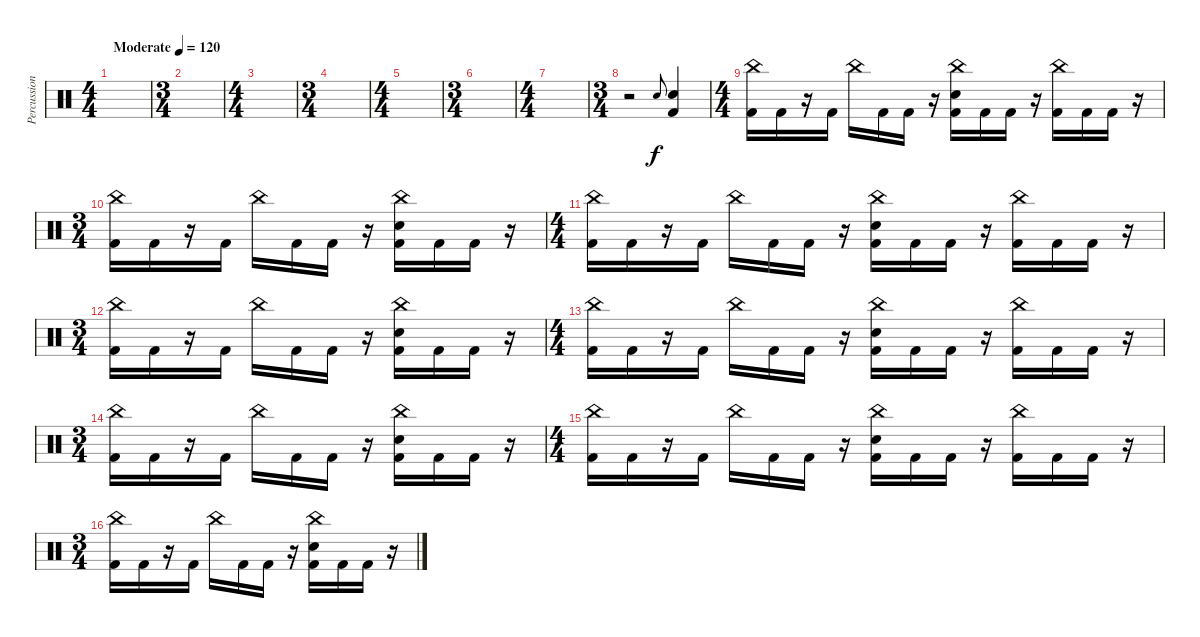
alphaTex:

\track ("Percussion" "Percussion") {instrument percussion}
\staff {score}
\articulation defaults
\ts (4 4)
\tempo (120 "Moderate")
\clef neutral
\ks c
|
\ts (3 4)
|
\ts (4 4)
|
\ts (3 4)
|
\ts (4 4)
|
\ts (3 4)
|
\ts (4 4)
|
\ts (3 4)
r.2 "Electric Snare (hit)".8{gr onbeat} ("Electric Snare (hit)" "Kick (hit) 2").4 |
\ts (4 4)
("China (hit)" "Kick (hit) 2").16 "Kick (hit) 2".16 r.16 "Kick (hit) 2".16 "China (hit)".16 "Kick (hit) 2".16 "Kick (hit) 2".16 r.16 ("China (hit)" "Electric Snare (hit)" "Kick (hit) 2").16 "Kick (hit) 2".16 "Kick (hit) 2".16 r.16 ("China (hit)" "Kick (hit) 2").16 "Kick (hit) 2".16 "Kick (hit) 2".16 r.16 |
\ts (3 4)
("China (hit)" "Kick (hit) 2").16 "Kick (hit) 2".16 r.16 "Kick (hit) 2".16 "China (hit)".16 "Kick (hit) 2".16 "Kick (hit) 2".16 r.16 ("China (hit)" "Electric Snare (hit)" "Kick (hit) 2").16 "Kick (hit) 2".16 "Kick (hit) 2".16 r.16 |
\ts (4 4)
("China (hit)" "Kick (hit) 2").16 "Kick (hit) 2".16 r.16 "Kick (hit) 2".16 "China (hit)".16 "Kick (hit) 2".16 "Kick (hit) 2".16 r.16 ("China (hit)" "Electric Snare (hit)" "Kick (hit) 2").16 "Kick (hit) 2".16 "Kick (hit) 2".16 r.16 ("China (hit)" "Kick (hit) 2").16 "Kick (hit) 2".16 "Kick (hit) 2".16 r.16 |
\ts (3 4)
("China (hit)" "Kick (hit) 2").16 "Kick (hit) 2".16 r.16 "Kick (hit) 2".16 "China (hit)".16 "Kick (hit) 2".16 "Kick (hit) 2".16 r.16 ("China (hit)" "Electric Snare (hit)" "Kick (hit) 2").16 "Kick (hit) 2".16 "Kick (hit) 2".16 r.16 |
\ts (4 4)
("China (hit)" "Kick (hit) 2").16 "Kick (hit) 2".16 r.16 "Kick (hit) 2".16 "China (hit)".16 "Kick (hit) 2".16 "Kick (hit) 2".16 r.16 ("China (hit)" "Electric Snare (hit)" "Kick (hit) 2").16 "Kick (hit) 2".16 "Kick (hit) 2".16 r.16 ("China (hit)" "Kick (hit) 2").16 "Kick (hit) 2".16 "Kick (hit) 2".16 r.16 |
\ts (3 4)
("China (hit)" "Kick (hit) 2").16 "Kick (hit) 2".16 r.16 "Kick (hit) 2".16 "China (hit)".16 "Kick (hit) 2".16 "Kick (hit) 2".16 r.16 ("China (hit)" "Electric Snare (hit)" "Kick (hit) 2").16 "Kick (hit) 2".16 "Kick (hit) 2".16 r.16 |
\ts (4 4)
("China (hit)" "Kick (hit) 2").16 "Kick (hit) 2".16 r.16 "Kick (hit) 2".16 "China (hit)".16 "Kick (hit) 2".16 "Kick (hit) 2".16 r.16 ("China (hit)" "Electric Snare (hit)" "Kick (hit) 2").16 "Kick (hit) 2".16 "Kick (hit) 2".16 r.16 ("China (hit)" "Kick (hit) 2").16 "Kick (hit) 2".16 "Kick (hit) 2".16 r.16 |
\ts (3 4)
("China (hit)" "Kick (hit) 2").16 "Kick (hit) 2".16 r.16 "Kick (hit) 2".16 "China (hit)".16 "Kick (hit) 2".16 "Kick (hit) 2".16 r.16 ("China (hit)" "Electric Snare (hit)" "Kick (hit) 2").16 "Kick (hit) 2".16 "Kick (hit) 2".16 r.16
